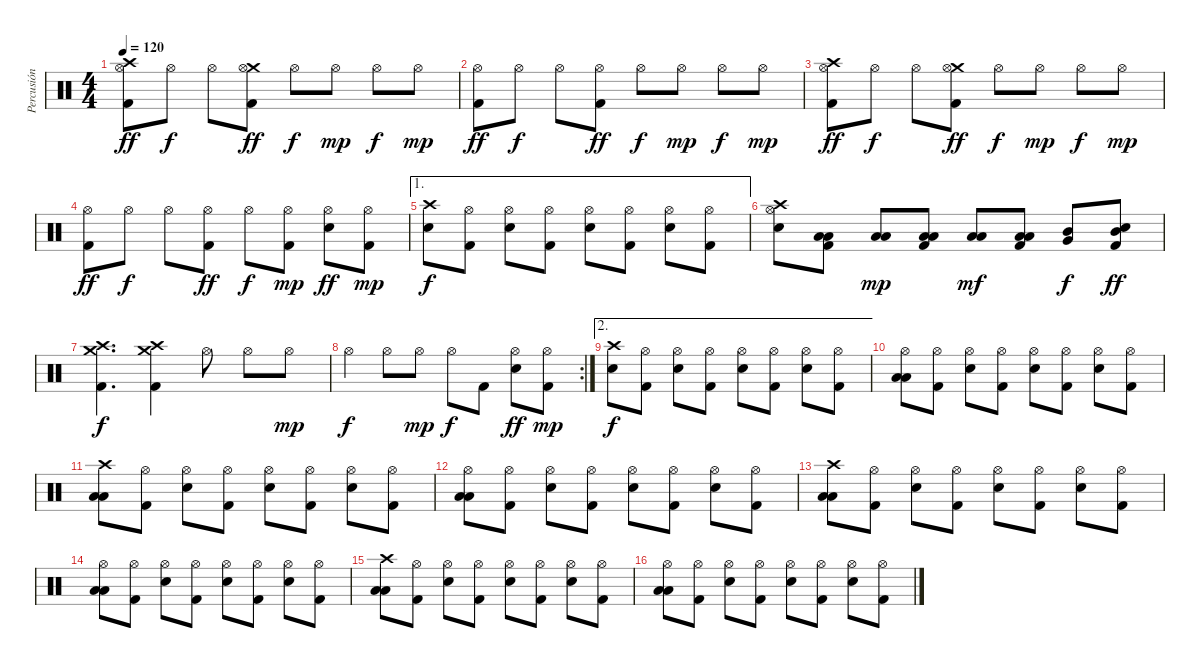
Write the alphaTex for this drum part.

\track ("Percusión" "Percusión") {instrument percussion}
\staff {score}
\articulation defaults
\ts (4 4)
\tempo 120
\clef neutral
\ks c
("Crash high (hit)" "Hi-Hat (open)" "Kick (hit) 2").8{dy ff} "Hi-Hat (open)".8{dy f} "Hi-Hat (open)".8 ("Crash medium (hit)" "Hi-Hat (open)" "Kick (hit) 2").8{dy ff} "Hi-Hat (open)".8{dy f} "Hi-Hat (open)".8{dy mp} "Hi-Hat (open)".8{dy f} "Hi-Hat (open)".8{dy mp} |
("Hi-Hat (open)" "Kick (hit) 2").8{dy ff} "Hi-Hat (open)".8{dy f} "Hi-Hat (open)".8 ("Hi-Hat (open)" "Kick (hit) 2").8{dy ff} "Hi-Hat (open)".8{dy f} "Hi-Hat (open)".8{dy mp} "Hi-Hat (open)".8{dy f} "Hi-Hat (open)".8{dy mp} |
("Crash high (hit)" "Hi-Hat (open)" "Kick (hit) 2").8{dy ff} "Hi-Hat (open)".8{dy f} "Hi-Hat (open)".8 ("Crash medium (hit)" "Hi-Hat (open)" "Kick (hit) 2").8{dy ff} "Hi-Hat (open)".8{dy f} "Hi-Hat (open)".8{dy mp} "Hi-Hat (open)".8{dy f} "Hi-Hat (open)".8{dy mp} |
("Hi-Hat (open)" "Kick (hit) 2").8{dy ff} "Hi-Hat (open)".8{dy f} "Hi-Hat (open)".8 ("Hi-Hat (open)" "Kick (hit) 2").8{dy ff} "Hi-Hat (open)".8{dy f} ("Hi-Hat (open)" "Kick (hit) 2").8{dy mp} ("Hi-Hat (open)" "Electric Snare (hit)").8{dy ff} ("Hi-Hat (open)" "Kick (hit) 2").8{dy mp} |
\ae 1
("Crash high (hit)" "Electric Snare (hit)").8{dy f} ("Hi-Hat (open)" "Kick (hit) 2").8 ("Hi-Hat (open)" "Electric Snare (hit)").8 ("Hi-Hat (open)" "Kick (hit) 2").8 ("Hi-Hat (open)" "Electric Snare (hit)").8 ("Hi-Hat (open)" "Kick (hit) 2").8 ("Hi-Hat (open)" "Electric Snare (hit)").8 ("Hi-Hat (open)" "Kick (hit) 2").8 |
("Crash high (hit)" "Hi-Hat (open)" "Electric Snare (hit)").8 ("Low Tom (hit)" "Low Floor Tom (hit)" "Kick (hit) 2").8 ("Low Tom (hit)" "Low Floor Tom (hit)").8{dy mp} ("Low Tom (hit)" "Low Floor Tom (hit)" "Kick (hit) 2").8 ("Low Tom (hit)" "Low Floor Tom (hit)").8{dy mf} ("Low Tom (hit)" "Low Floor Tom (hit)" "Kick (hit) 2").8 ("Mid Tom (hit)" "Very Low Tom (hit)").8{dy f} ("Electric Snare (hit)" "Mid Tom (hit)" "Kick (hit) 2").8{dy ff} |
("Crash high (hit)" "Crash medium (hit)" "Kick (hit) 2").4{d dy f} ("Crash high (hit)" "Crash medium (hit)" "Kick (hit) 2").4 "Hi-Hat (open)".8 "Hi-Hat (open)".8 "Hi-Hat (open)".8{dy mp} |
\rc 2 "Hi-Hat (open)".4{dy f} "Hi-Hat (open)".8 "Hi-Hat (open)".8{dy mp} "Hi-Hat (open)".8{dy f} "Kick (hit) 2".8
("Hi-Hat (open)" "Electric Snare (hit)").8{dy ff} ("Hi-Hat (open)" "Kick (hit) 2").8{dy mp} |
\ae 2
("Crash high (hit)" "Electric Snare (hit)").8{dy f} ("Hi-Hat (open)" "Kick (hit) 2").8 ("Hi-Hat (open)" "Electric Snare (hit)").8 ("Hi-Hat (open)" "Kick (hit) 2").8 ("Hi-Hat (open)" "Electric Snare (hit)").8 ("Hi-Hat (open)" "Kick (hit) 2").8 ("Hi-Hat (open)" "Electric Snare (hit)").8 ("Hi-Hat (open)" "Kick (hit) 2").8 |
("Hi-Hat (open)" "Low Tom (hit)" "Low Floor Tom (hit)").8 ("Hi-Hat (open)" "Kick (hit) 2").8 ("Hi-Hat (open)" "Electric Snare (hit)").8 ("Hi-Hat (open)" "Kick (hit) 2").8 ("Hi-Hat (open)" "Electric Snare (hit)").8 ("Hi-Hat (open)" "Kick (hit) 2").8 ("Hi-Hat (open)" "Electric Snare (hit)").8 ("Hi-Hat (open)" "Kick (hit) 2").8 |
("Crash high (hit)" "Low Tom (hit)" "Low Floor Tom (hit)").8 ("Hi-Hat (open)" "Kick (hit) 2").8 ("Hi-Hat (open)" "Electric Snare (hit)").8 ("Hi-Hat (open)" "Kick (hit) 2").8 ("Hi-Hat (open)" "Electric Snare (hit)").8 ("Hi-Hat (open)" "Kick (hit) 2").8 ("Hi-Hat (open)" "Electric Snare (hit)").8 ("Hi-Hat (open)" "Kick (hit) 2").8 |
("Hi-Hat (open)" "Low Tom (hit)" "Low Floor Tom (hit)").8 ("Hi-Hat (open)" "Kick (hit) 2").8 ("Hi-Hat (open)" "Electric Snare (hit)").8 ("Hi-Hat (open)" "Kick (hit) 2").8 ("Hi-Hat (open)" "Electric Snare (hit)").8 ("Hi-Hat (open)" "Kick (hit) 2").8 ("Hi-Hat (open)" "Electric Snare (hit)").8 ("Hi-Hat (open)" "Kick (hit) 2").8 |
("Crash high (hit)" "Low Tom (hit)" "Low Floor Tom (hit)").8 ("Hi-Hat (open)" "Kick (hit) 2").8 ("Hi-Hat (open)" "Electric Snare (hit)").8 ("Hi-Hat (open)" "Kick (hit) 2").8 ("Hi-Hat (open)" "Electric Snare (hit)").8 ("Hi-Hat (open)" "Kick (hit) 2").8 ("Hi-Hat (open)" "Electric Snare (hit)").8 ("Hi-Hat (open)" "Kick (hit) 2").8 |
("Hi-Hat (open)" "Low Tom (hit)" "Low Floor Tom (hit)").8 ("Hi-Hat (open)" "Kick (hit) 2").8 ("Hi-Hat (open)" "Electric Snare (hit)").8 ("Hi-Hat (open)" "Kick (hit) 2").8 ("Hi-Hat (open)" "Electric Snare (hit)").8 ("Hi-Hat (open)" "Kick (hit) 2").8 ("Hi-Hat (open)" "Electric Snare (hit)").8 ("Hi-Hat (open)" "Kick (hit) 2").8 |
("Crash high (hit)" "Low Tom (hit)" "Low Floor Tom (hit)").8 ("Hi-Hat (open)" "Kick (hit) 2").8 ("Hi-Hat (open)" "Electric Snare (hit)").8 ("Hi-Hat (open)" "Kick (hit) 2").8 ("Hi-Hat (open)" "Electric Snare (hit)").8 ("Hi-Hat (open)" "Kick (hit) 2").8 ("Hi-Hat (open)" "Electric Snare (hit)").8 ("Hi-Hat (open)" "Kick (hit) 2").8 |
("Hi-Hat (open)" "Low Tom (hit)" "Low Floor Tom (hit)").8 ("Hi-Hat (open)" "Kick (hit) 2").8 ("Hi-Hat (open)" "Electric Snare (hit)").8 ("Hi-Hat (open)" "Kick (hit) 2").8 ("Hi-Hat (open)" "Electric Snare (hit)").8 ("Hi-Hat (open)" "Kick (hit) 2").8 ("Hi-Hat (open)" "Electric Snare (hit)").8 ("Hi-Hat (open)" "Kick (hit) 2").8
